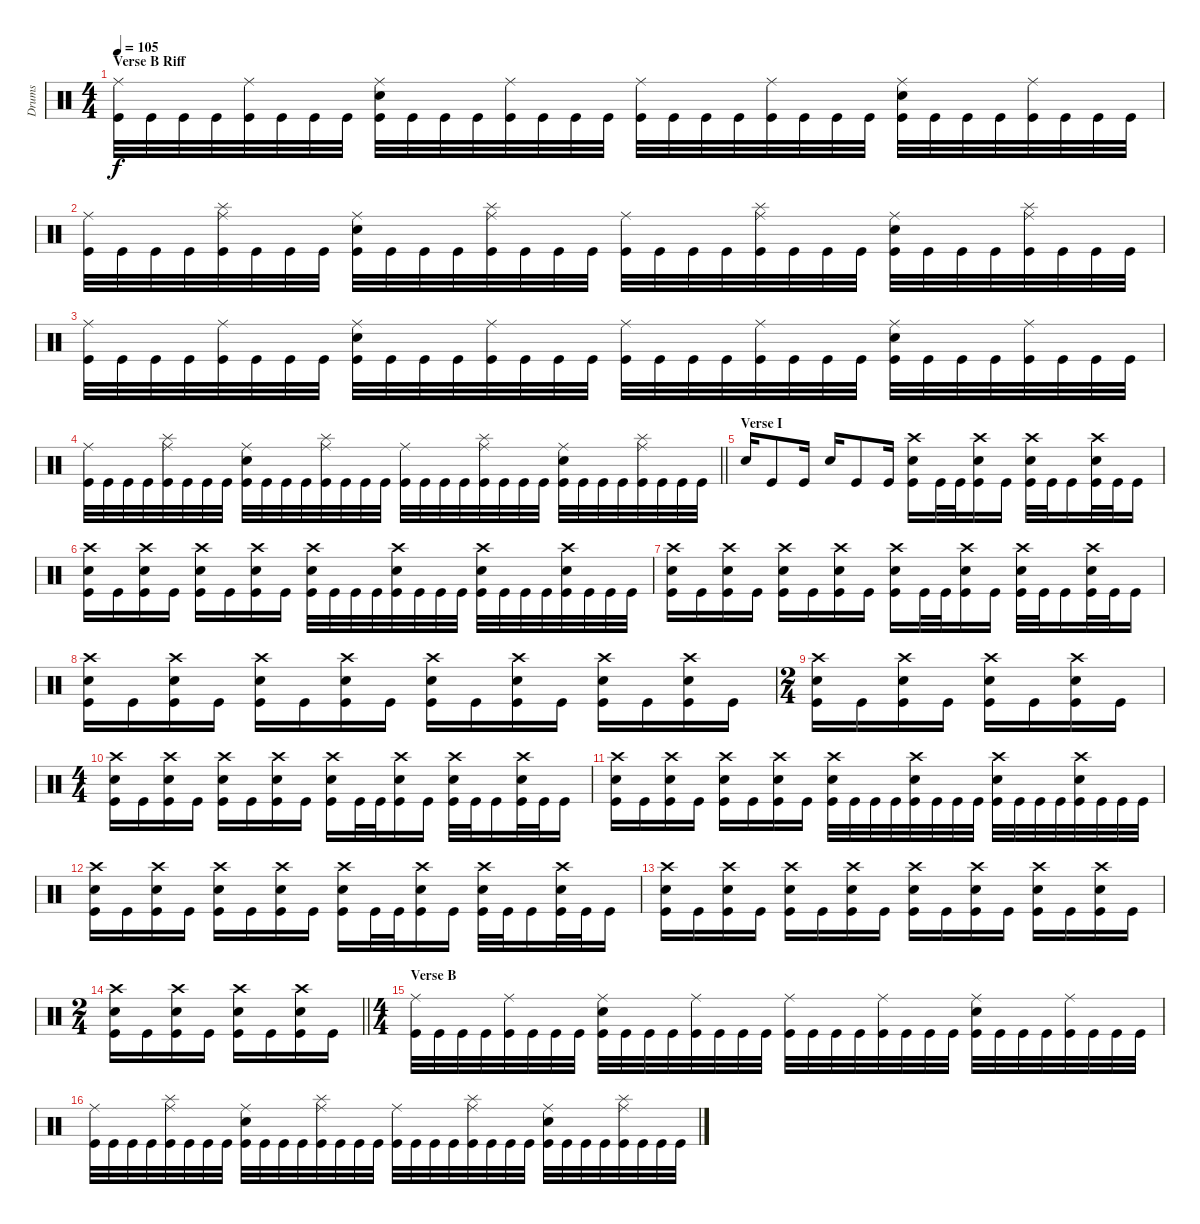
\track ("Drums" "Drums") {instrument percussion}
\staff {score}
\articulation defaults
\ts (4 4)
\section ("" "Verse B Riff")
\tempo 105
\clef neutral
\ks c
("Ride (middle)" "Kick (hit)").32{dy f} "Kick (hit)".32 "Kick (hit)".32 "Kick (hit)".32 ("Ride (middle)" "Kick (hit)").32 "Kick (hit)".32 "Kick (hit)".32 "Kick (hit)".32 ("Ride (middle)" "Snare (hit) 2" "Kick (hit)").32 "Kick (hit)".32 "Kick (hit)".32 "Kick (hit)".32 ("Ride (middle)" "Kick (hit)").32 "Kick (hit)".32 "Kick (hit)".32 "Kick (hit)".32 ("Ride (middle)" "Kick (hit)").32 "Kick (hit)".32 "Kick (hit)".32 "Kick (hit)".32 ("Ride (middle)" "Kick (hit)").32 "Kick (hit)".32 "Kick (hit)".32 "Kick (hit)".32 ("Ride (middle)" "Snare (hit) 2" "Kick (hit)").32 "Kick (hit)".32 "Kick (hit)".32 "Kick (hit)".32 ("Ride (middle)" "Kick (hit)").32 "Kick (hit)".32 "Kick (hit)".32 "Kick (hit)".32 |
("Ride (middle)" "Kick (hit)").32 "Kick (hit)".32 "Kick (hit)".32 "Kick (hit)".32 ("Ride (middle)" "Splash (hit)" "Kick (hit)").32 "Kick (hit)".32 "Kick (hit)".32 "Kick (hit)".32 ("Ride (middle)" "Snare (hit) 2" "Kick (hit)").32 "Kick (hit)".32 "Kick (hit)".32 "Kick (hit)".32 ("Ride (middle)" "Splash (hit)" "Kick (hit)").32 "Kick (hit)".32 "Kick (hit)".32 "Kick (hit)".32 ("Ride (middle)" "Kick (hit)").32 "Kick (hit)".32 "Kick (hit)".32 "Kick (hit)".32 ("Ride (middle)" "Splash (hit)" "Kick (hit)").32 "Kick (hit)".32 "Kick (hit)".32 "Kick (hit)".32 ("Ride (middle)" "Snare (hit) 2" "Kick (hit)").32 "Kick (hit)".32 "Kick (hit)".32 "Kick (hit)".32 ("Ride (middle)" "Splash (hit)" "Kick (hit)").32 "Kick (hit)".32 "Kick (hit)".32 "Kick (hit)".32 |
("Ride (middle)" "Kick (hit)").32 "Kick (hit)".32 "Kick (hit)".32 "Kick (hit)".32 ("Ride (middle)" "Kick (hit)").32 "Kick (hit)".32 "Kick (hit)".32 "Kick (hit)".32 ("Ride (middle)" "Snare (hit) 2" "Kick (hit)").32 "Kick (hit)".32 "Kick (hit)".32 "Kick (hit)".32 ("Ride (middle)" "Kick (hit)").32 "Kick (hit)".32 "Kick (hit)".32 "Kick (hit)".32 ("Ride (middle)" "Kick (hit)").32 "Kick (hit)".32 "Kick (hit)".32 "Kick (hit)".32 ("Ride (middle)" "Kick (hit)").32 "Kick (hit)".32 "Kick (hit)".32 "Kick (hit)".32 ("Ride (middle)" "Snare (hit) 2" "Kick (hit)").32 "Kick (hit)".32 "Kick (hit)".32 "Kick (hit)".32 ("Ride (middle)" "Kick (hit)").32 "Kick (hit)".32 "Kick (hit)".32 "Kick (hit)".32 |
\barLineRight lightlight
("Ride (middle)" "Kick (hit)").32 "Kick (hit)".32 "Kick (hit)".32 "Kick (hit)".32 ("Ride (middle)" "Splash (hit)" "Kick (hit)").32 "Kick (hit)".32 "Kick (hit)".32 "Kick (hit)".32 ("Ride (middle)" "Snare (hit) 2" "Kick (hit)").32 "Kick (hit)".32 "Kick (hit)".32 "Kick (hit)".32 ("Ride (middle)" "Splash (hit)" "Kick (hit)").32 "Kick (hit)".32 "Kick (hit)".32 "Kick (hit)".32 ("Ride (middle)" "Kick (hit)").32 "Kick (hit)".32 "Kick (hit)".32 "Kick (hit)".32 ("Ride (middle)" "Splash (hit)" "Kick (hit)").32 "Kick (hit)".32 "Kick (hit)".32 "Kick (hit)".32 ("Ride (middle)" "Snare (hit) 2" "Kick (hit)").32 "Kick (hit)".32 "Kick (hit)".32 "Kick (hit)".32 ("Ride (middle)" "Splash (hit)" "Kick (hit)").32 "Kick (hit)".32 "Kick (hit)".32 "Kick (hit)".32 |
\section ("" "Verse I")
"Snare (hit) 2".16 "Kick (hit)".8 "Kick (hit)".16 "Snare (hit) 2".16 "Kick (hit)".8 "Kick (hit)".16 ("Crash high (hit)" "Snare (hit) 2" "Kick (hit)").16 "Kick (hit)".32 "Kick (hit)".32 ("Crash high (hit)" "Snare (hit) 2" "Kick (hit)").16 "Kick (hit)".16 ("Crash high (hit)" "Snare (hit) 2" "Kick (hit)").32 "Kick (hit)".32 "Kick (hit)".16 ("Crash high (hit)" "Snare (hit) 2" "Kick (hit)").32 "Kick (hit)".32 "Kick (hit)".16 |
("Crash high (hit)" "Snare (hit) 2" "Kick (hit)").16 "Kick (hit)".16 ("Crash high (hit)" "Snare (hit) 2" "Kick (hit)").16 "Kick (hit)".16 ("Crash high (hit)" "Snare (hit) 2" "Kick (hit)").16 "Kick (hit)".16 ("Crash high (hit)" "Snare (hit) 2" "Kick (hit)").16 "Kick (hit)".16 ("Crash high (hit)" "Snare (hit) 2" "Kick (hit)").32 "Kick (hit)".32 "Kick (hit)".32 "Kick (hit)".32 ("Crash high (hit)" "Snare (hit) 2" "Kick (hit)").32 "Kick (hit)".32 "Kick (hit)".32 "Kick (hit)".32 ("Crash high (hit)" "Snare (hit) 2" "Kick (hit)").32 "Kick (hit)".32 "Kick (hit)".32 "Kick (hit)".32 ("Crash high (hit)" "Snare (hit) 2" "Kick (hit)").32 "Kick (hit)".32 "Kick (hit)".32 "Kick (hit)".32 |
("Crash high (hit)" "Snare (hit) 2" "Kick (hit)").16 "Kick (hit)".16 ("Crash high (hit)" "Snare (hit) 2" "Kick (hit)").16 "Kick (hit)".16 ("Crash high (hit)" "Snare (hit) 2" "Kick (hit)").16 "Kick (hit)".16 ("Crash high (hit)" "Snare (hit) 2" "Kick (hit)").16 "Kick (hit)".16 ("Crash high (hit)" "Snare (hit) 2" "Kick (hit)").16 "Kick (hit)".32 "Kick (hit)".32 ("Crash high (hit)" "Snare (hit) 2" "Kick (hit)").16 "Kick (hit)".16 ("Crash high (hit)" "Snare (hit) 2" "Kick (hit)").32 "Kick (hit)".32 "Kick (hit)".16 ("Crash high (hit)" "Snare (hit) 2" "Kick (hit)").32 "Kick (hit)".32 "Kick (hit)".16 |
("Crash high (hit)" "Snare (hit) 2" "Kick (hit)").16 "Kick (hit)".16 ("Crash high (hit)" "Snare (hit) 2" "Kick (hit)").16 "Kick (hit)".16 ("Crash high (hit)" "Snare (hit) 2" "Kick (hit)").16 "Kick (hit)".16 ("Crash high (hit)" "Snare (hit) 2" "Kick (hit)").16 "Kick (hit)".16 ("Crash high (hit)" "Snare (hit) 2" "Kick (hit)").16 "Kick (hit)".16 ("Crash high (hit)" "Snare (hit) 2" "Kick (hit)").16 "Kick (hit)".16 ("Crash high (hit)" "Snare (hit) 2" "Kick (hit)").16 "Kick (hit)".16 ("Crash high (hit)" "Snare (hit) 2" "Kick (hit)").16 "Kick (hit)".16 |
\ts (2 4)
("Crash high (hit)" "Snare (hit) 2" "Kick (hit)").16 "Kick (hit)".16 ("Crash high (hit)" "Snare (hit) 2" "Kick (hit)").16 "Kick (hit)".16 ("Crash high (hit)" "Snare (hit) 2" "Kick (hit)").16 "Kick (hit)".16 ("Crash high (hit)" "Snare (hit) 2" "Kick (hit)").16 "Kick (hit)".16 |
\ts (4 4)
("Crash high (hit)" "Snare (hit) 2" "Kick (hit)").16 "Kick (hit)".16 ("Crash high (hit)" "Snare (hit) 2" "Kick (hit)").16 "Kick (hit)".16 ("Crash high (hit)" "Snare (hit) 2" "Kick (hit)").16 "Kick (hit)".16 ("Crash high (hit)" "Snare (hit) 2" "Kick (hit)").16 "Kick (hit)".16 ("Crash high (hit)" "Snare (hit) 2" "Kick (hit)").16 "Kick (hit)".32 "Kick (hit)".32 ("Crash high (hit)" "Snare (hit) 2" "Kick (hit)").16 "Kick (hit)".16 ("Crash high (hit)" "Snare (hit) 2" "Kick (hit)").32 "Kick (hit)".32 "Kick (hit)".16 ("Crash high (hit)" "Snare (hit) 2" "Kick (hit)").32 "Kick (hit)".32 "Kick (hit)".16 |
("Crash high (hit)" "Snare (hit) 2" "Kick (hit)").16 "Kick (hit)".16 ("Crash high (hit)" "Snare (hit) 2" "Kick (hit)").16 "Kick (hit)".16 ("Crash high (hit)" "Snare (hit) 2" "Kick (hit)").16 "Kick (hit)".16 ("Crash high (hit)" "Snare (hit) 2" "Kick (hit)").16 "Kick (hit)".16 ("Crash high (hit)" "Snare (hit) 2" "Kick (hit)").32 "Kick (hit)".32 "Kick (hit)".32 "Kick (hit)".32 ("Crash high (hit)" "Snare (hit) 2" "Kick (hit)").32 "Kick (hit)".32 "Kick (hit)".32 "Kick (hit)".32 ("Crash high (hit)" "Snare (hit) 2" "Kick (hit)").32 "Kick (hit)".32 "Kick (hit)".32 "Kick (hit)".32 ("Crash high (hit)" "Snare (hit) 2" "Kick (hit)").32 "Kick (hit)".32 "Kick (hit)".32 "Kick (hit)".32 |
("Crash high (hit)" "Snare (hit) 2" "Kick (hit)").16 "Kick (hit)".16 ("Crash high (hit)" "Snare (hit) 2" "Kick (hit)").16 "Kick (hit)".16 ("Crash high (hit)" "Snare (hit) 2" "Kick (hit)").16 "Kick (hit)".16 ("Crash high (hit)" "Snare (hit) 2" "Kick (hit)").16 "Kick (hit)".16 ("Crash high (hit)" "Snare (hit) 2" "Kick (hit)").16 "Kick (hit)".32 "Kick (hit)".32 ("Crash high (hit)" "Snare (hit) 2" "Kick (hit)").16 "Kick (hit)".16 ("Crash high (hit)" "Snare (hit) 2" "Kick (hit)").32 "Kick (hit)".32 "Kick (hit)".16 ("Crash high (hit)" "Snare (hit) 2" "Kick (hit)").32 "Kick (hit)".32 "Kick (hit)".16 |
("Crash high (hit)" "Snare (hit) 2" "Kick (hit)").16 "Kick (hit)".16 ("Crash high (hit)" "Snare (hit) 2" "Kick (hit)").16 "Kick (hit)".16 ("Crash high (hit)" "Snare (hit) 2" "Kick (hit)").16 "Kick (hit)".16 ("Crash high (hit)" "Snare (hit) 2" "Kick (hit)").16 "Kick (hit)".16 ("Crash high (hit)" "Snare (hit) 2" "Kick (hit)").16 "Kick (hit)".16 ("Crash high (hit)" "Snare (hit) 2" "Kick (hit)").16 "Kick (hit)".16 ("Crash high (hit)" "Snare (hit) 2" "Kick (hit)").16 "Kick (hit)".16 ("Crash high (hit)" "Snare (hit) 2" "Kick (hit)").16 "Kick (hit)".16 |
\ts (2 4)
\barLineRight lightlight
("Crash high (hit)" "Snare (hit) 2" "Kick (hit)").16 "Kick (hit)".16 ("Crash high (hit)" "Snare (hit) 2" "Kick (hit)").16 "Kick (hit)".16 ("Crash high (hit)" "Snare (hit) 2" "Kick (hit)").16 "Kick (hit)".16 ("Crash high (hit)" "Snare (hit) 2" "Kick (hit)").16 "Kick (hit)".16 |
\ts (4 4)
\section ("" "Verse B")
("Ride (middle)" "Kick (hit)").32 "Kick (hit)".32 "Kick (hit)".32 "Kick (hit)".32 ("Ride (middle)" "Kick (hit)").32 "Kick (hit)".32 "Kick (hit)".32 "Kick (hit)".32 ("Ride (middle)" "Snare (hit) 2" "Kick (hit)").32 "Kick (hit)".32 "Kick (hit)".32 "Kick (hit)".32 ("Ride (middle)" "Kick (hit)").32 "Kick (hit)".32 "Kick (hit)".32 "Kick (hit)".32 ("Ride (middle)" "Kick (hit)").32 "Kick (hit)".32 "Kick (hit)".32 "Kick (hit)".32 ("Ride (middle)" "Kick (hit)").32 "Kick (hit)".32 "Kick (hit)".32 "Kick (hit)".32 ("Ride (middle)" "Snare (hit) 2" "Kick (hit)").32 "Kick (hit)".32 "Kick (hit)".32 "Kick (hit)".32 ("Ride (middle)" "Kick (hit)").32 "Kick (hit)".32 "Kick (hit)".32 "Kick (hit)".32 |
("Ride (middle)" "Kick (hit)").32 "Kick (hit)".32 "Kick (hit)".32 "Kick (hit)".32 ("Ride (middle)" "Splash (hit)" "Kick (hit)").32 "Kick (hit)".32 "Kick (hit)".32 "Kick (hit)".32 ("Ride (middle)" "Snare (hit) 2" "Kick (hit)").32 "Kick (hit)".32 "Kick (hit)".32 "Kick (hit)".32 ("Ride (middle)" "Splash (hit)" "Kick (hit)").32 "Kick (hit)".32 "Kick (hit)".32 "Kick (hit)".32 ("Ride (middle)" "Kick (hit)").32 "Kick (hit)".32 "Kick (hit)".32 "Kick (hit)".32 ("Ride (middle)" "Splash (hit)" "Kick (hit)").32 "Kick (hit)".32 "Kick (hit)".32 "Kick (hit)".32 ("Ride (middle)" "Snare (hit) 2" "Kick (hit)").32 "Kick (hit)".32 "Kick (hit)".32 "Kick (hit)".32 ("Ride (middle)" "Splash (hit)" "Kick (hit)").32 "Kick (hit)".32 "Kick (hit)".32 "Kick (hit)".32
